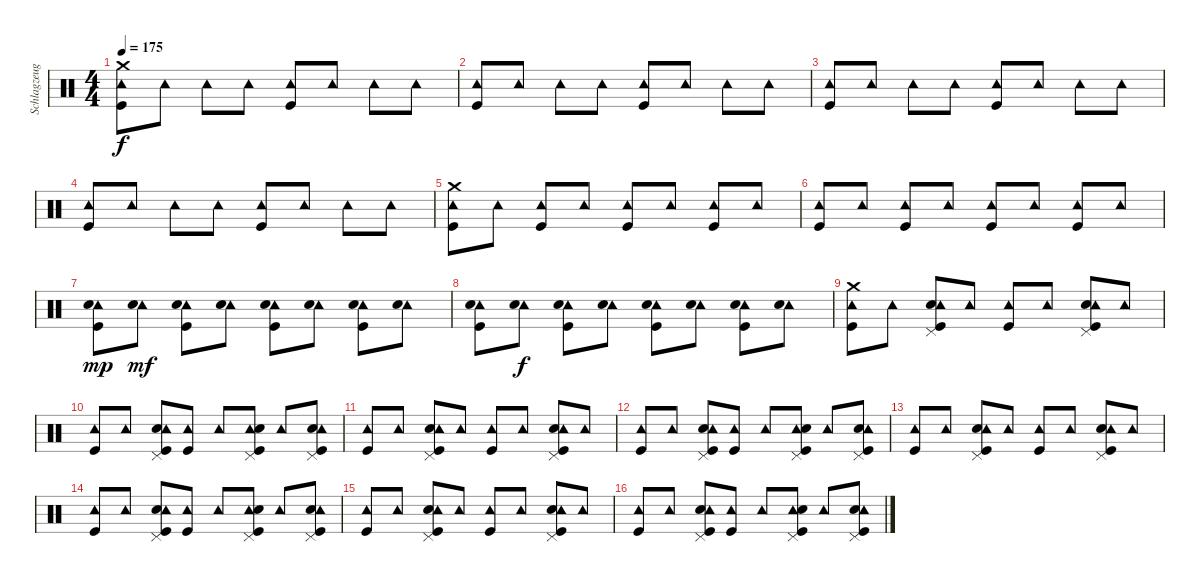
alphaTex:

\track ("Schlagzeug - Bela B." "Schlagzeug") {instrument percussion}
\staff {score}
\articulation defaults
\ts (4 4)
\tempo 175
\clef neutral
\ks c
("Tambourine (hit)" "Kick (hit)" "Crash medium (hit)").8{dy f} "Tambourine (hit)".8 "Tambourine (hit)".8 "Tambourine (hit)".8 ("Tambourine (hit)" "Kick (hit)").8 "Tambourine (hit)".8 "Tambourine (hit)".8 "Tambourine (hit)".8 |
("Tambourine (hit)" "Kick (hit)").8 "Tambourine (hit)".8 "Tambourine (hit)".8 "Tambourine (hit)".8 ("Tambourine (hit)" "Kick (hit)").8 "Tambourine (hit)".8 "Tambourine (hit)".8 "Tambourine (hit)".8 |
("Tambourine (hit)" "Kick (hit)").8 "Tambourine (hit)".8 "Tambourine (hit)".8 "Tambourine (hit)".8 ("Tambourine (hit)" "Kick (hit)").8 "Tambourine (hit)".8 "Tambourine (hit)".8 "Tambourine (hit)".8 |
("Tambourine (hit)" "Kick (hit)").8 "Tambourine (hit)".8 "Tambourine (hit)".8 "Tambourine (hit)".8 ("Tambourine (hit)" "Kick (hit)").8 "Tambourine (hit)".8 "Tambourine (hit)".8 "Tambourine (hit)".8 |
("Tambourine (hit)" "Kick (hit)" "Crash medium (hit)").8 "Tambourine (hit)".8 ("Tambourine (hit)" "Kick (hit)").8 "Tambourine (hit)".8 ("Tambourine (hit)" "Kick (hit)").8 "Tambourine (hit)".8 ("Tambourine (hit)" "Kick (hit)").8 "Tambourine (hit)".8 |
("Tambourine (hit)" "Kick (hit)").8 "Tambourine (hit)".8 ("Tambourine (hit)" "Kick (hit)").8 "Tambourine (hit)".8 ("Tambourine (hit)" "Kick (hit)").8 "Tambourine (hit)".8 ("Tambourine (hit)" "Kick (hit)").8 "Tambourine (hit)".8 |
("Tambourine (hit)" "Kick (hit)" "Electric Snare (hit)").8{dy mp} ("Tambourine (hit)" "Electric Snare (hit)").8{dy mf} ("Tambourine (hit)" "Electric Snare (hit)" "Kick (hit)").8 ("Tambourine (hit)" "Electric Snare (hit)").8 ("Tambourine (hit)" "Kick (hit)" "Electric Snare (hit)").8 ("Tambourine (hit)" "Electric Snare (hit)").8 ("Tambourine (hit)" "Electric Snare (hit)" "Kick (hit)").8 ("Tambourine (hit)" "Electric Snare (hit)").8 |
("Tambourine (hit)" "Kick (hit)" "Electric Snare (hit)").8 ("Tambourine (hit)" "Electric Snare (hit)").8{dy f} ("Tambourine (hit)" "Electric Snare (hit)" "Kick (hit)").8 ("Tambourine (hit)" "Electric Snare (hit)").8 ("Tambourine (hit)" "Kick (hit)" "Electric Snare (hit)").8 ("Tambourine (hit)" "Electric Snare (hit)").8 ("Tambourine (hit)" "Electric Snare (hit)" "Kick (hit)").8 ("Tambourine (hit)" "Electric Snare (hit)").8 |
("Tambourine (hit)" "Kick (hit)" "Crash medium (hit)").8 "Tambourine (hit)".8 ("Pedal Hi-Hat (hit)" "Electric Snare (hit)" "Tambourine (hit)" "Kick (hit)").8 "Tambourine (hit)".8 ("Tambourine (hit)" "Kick (hit)").8 "Tambourine (hit)".8 ("Pedal Hi-Hat (hit)" "Electric Snare (hit)" "Tambourine (hit)" "Kick (hit)").8 "Tambourine (hit)".8 |
("Tambourine (hit)" "Kick (hit)").8 "Tambourine (hit)".8 ("Pedal Hi-Hat (hit)" "Electric Snare (hit)" "Tambourine (hit)" "Kick (hit)").8 ("Tambourine (hit)" "Kick (hit)").8 "Tambourine (hit)".8 ("Pedal Hi-Hat (hit)" "Tambourine (hit)" "Electric Snare (hit)" "Kick (hit)").8 "Tambourine (hit)".8 ("Pedal Hi-Hat (hit)" "Electric Snare (hit)" "Tambourine (hit)" "Kick (hit)").8 |
("Tambourine (hit)" "Kick (hit)").8 "Tambourine (hit)".8 ("Pedal Hi-Hat (hit)" "Electric Snare (hit)" "Tambourine (hit)" "Kick (hit)").8 "Tambourine (hit)".8 ("Tambourine (hit)" "Kick (hit)").8 "Tambourine (hit)".8 ("Pedal Hi-Hat (hit)" "Electric Snare (hit)" "Tambourine (hit)" "Kick (hit)").8 "Tambourine (hit)".8 |
("Tambourine (hit)" "Kick (hit)").8 "Tambourine (hit)".8 ("Pedal Hi-Hat (hit)" "Electric Snare (hit)" "Tambourine (hit)" "Kick (hit)").8 ("Tambourine (hit)" "Kick (hit)").8 "Tambourine (hit)".8 ("Pedal Hi-Hat (hit)" "Tambourine (hit)" "Electric Snare (hit)" "Kick (hit)").8 "Tambourine (hit)".8 ("Pedal Hi-Hat (hit)" "Electric Snare (hit)" "Tambourine (hit)" "Kick (hit)").8 |
("Tambourine (hit)" "Kick (hit)").8 "Tambourine (hit)".8 ("Pedal Hi-Hat (hit)" "Electric Snare (hit)" "Tambourine (hit)" "Kick (hit)").8 "Tambourine (hit)".8 ("Tambourine (hit)" "Kick (hit)").8 "Tambourine (hit)".8 ("Pedal Hi-Hat (hit)" "Electric Snare (hit)" "Tambourine (hit)" "Kick (hit)").8 "Tambourine (hit)".8 |
("Tambourine (hit)" "Kick (hit)").8 "Tambourine (hit)".8 ("Pedal Hi-Hat (hit)" "Electric Snare (hit)" "Tambourine (hit)" "Kick (hit)").8 ("Tambourine (hit)" "Kick (hit)").8 "Tambourine (hit)".8 ("Pedal Hi-Hat (hit)" "Tambourine (hit)" "Electric Snare (hit)" "Kick (hit)").8 "Tambourine (hit)".8 ("Pedal Hi-Hat (hit)" "Electric Snare (hit)" "Tambourine (hit)" "Kick (hit)").8 |
("Tambourine (hit)" "Kick (hit)").8 "Tambourine (hit)".8 ("Pedal Hi-Hat (hit)" "Electric Snare (hit)" "Tambourine (hit)" "Kick (hit)").8 "Tambourine (hit)".8 ("Tambourine (hit)" "Kick (hit)").8 "Tambourine (hit)".8 ("Pedal Hi-Hat (hit)" "Electric Snare (hit)" "Tambourine (hit)" "Kick (hit)").8 "Tambourine (hit)".8 |
("Tambourine (hit)" "Kick (hit)").8 "Tambourine (hit)".8 ("Pedal Hi-Hat (hit)" "Electric Snare (hit)" "Tambourine (hit)" "Kick (hit)").8 ("Tambourine (hit)" "Kick (hit)").8 "Tambourine (hit)".8 ("Pedal Hi-Hat (hit)" "Tambourine (hit)" "Electric Snare (hit)" "Kick (hit)").8 "Tambourine (hit)".8 ("Pedal Hi-Hat (hit)" "Electric Snare (hit)" "Tambourine (hit)" "Kick (hit)").8
